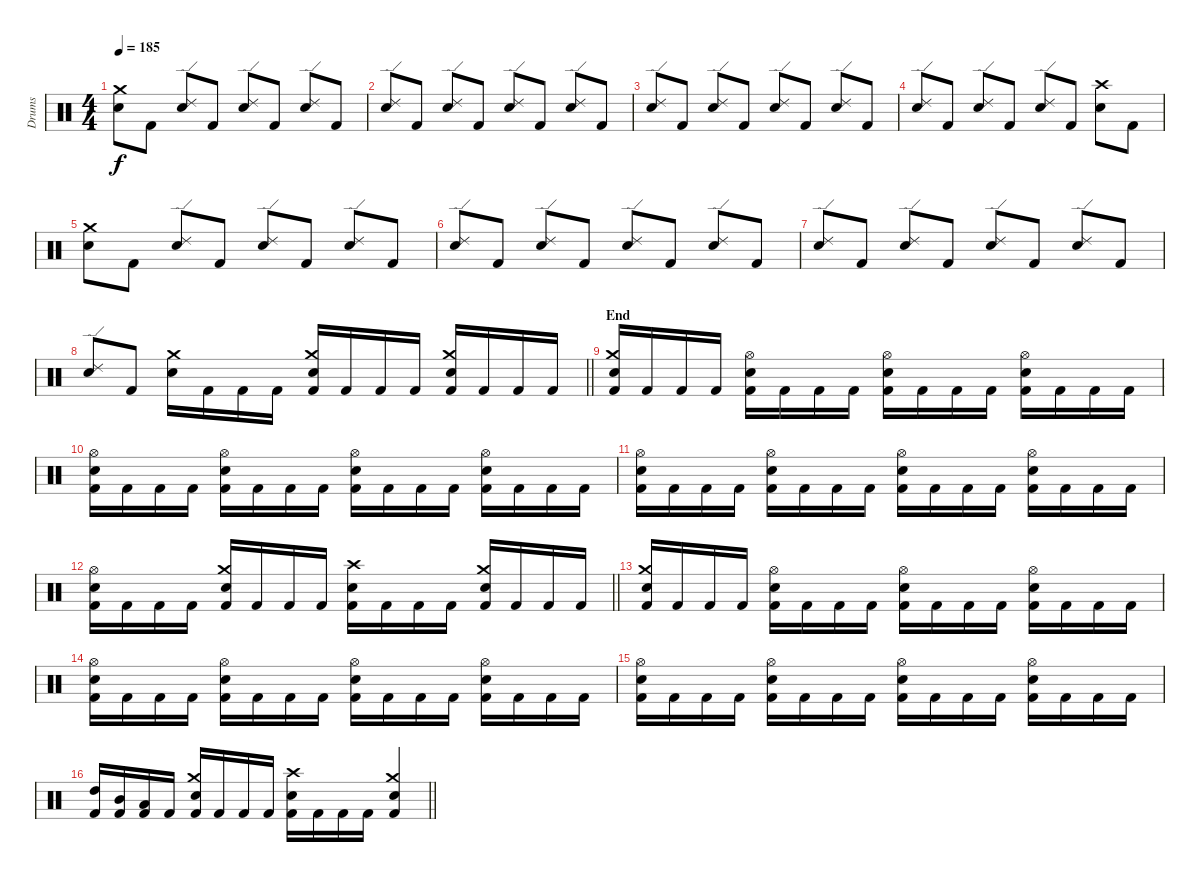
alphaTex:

\track ("Drums" "Drums") {instrument percussion}
\staff {score}
\articulation defaults
\ts (4 4)
\section ("" "")
\tempo 185
\clef neutral
\ks c
("Snare (hit) 2" "Crash medium (hit)").8{dy f} "Kick (hit) 2".8 ("Snare (hit) 2" "Ride (edge) 2").8 "Kick (hit) 2".8 ("Snare (hit) 2" "Ride (edge) 2").8 "Kick (hit) 2".8 ("Snare (hit) 2" "Ride (edge) 2").8 "Kick (hit) 2".8 |
("Snare (hit) 2" "Ride (edge) 2").8 "Kick (hit) 2".8 ("Snare (hit) 2" "Ride (edge) 2").8 "Kick (hit) 2".8 ("Snare (hit) 2" "Ride (edge) 2").8 "Kick (hit) 2".8 ("Snare (hit) 2" "Ride (edge) 2").8 "Kick (hit) 2".8 |
("Snare (hit) 2" "Ride (edge) 2").8 "Kick (hit) 2".8 ("Snare (hit) 2" "Ride (edge) 2").8 "Kick (hit) 2".8 ("Snare (hit) 2" "Ride (edge) 2").8 "Kick (hit) 2".8 ("Snare (hit) 2" "Ride (edge) 2").8 "Kick (hit) 2".8 |
("Snare (hit) 2" "Ride (edge) 2").8 "Kick (hit) 2".8 ("Snare (hit) 2" "Ride (edge) 2").8 "Kick (hit) 2".8 ("Snare (hit) 2" "Ride (edge) 2").8 "Kick (hit) 2".8 ("Snare (hit) 2" "Crash high (hit)").8 "Kick (hit) 2".8 |
("Snare (hit) 2" "Crash medium (hit)").8 "Kick (hit) 2".8 ("Snare (hit) 2" "Ride (edge) 2").8 "Kick (hit) 2".8 ("Snare (hit) 2" "Ride (edge) 2").8 "Kick (hit) 2".8 ("Snare (hit) 2" "Ride (edge) 2").8 "Kick (hit) 2".8 |
("Snare (hit) 2" "Ride (edge) 2").8 "Kick (hit) 2".8 ("Snare (hit) 2" "Ride (edge) 2").8 "Kick (hit) 2".8 ("Snare (hit) 2" "Ride (edge) 2").8 "Kick (hit) 2".8 ("Snare (hit) 2" "Ride (edge) 2").8 "Kick (hit) 2".8 |
("Snare (hit) 2" "Ride (edge) 2").8 "Kick (hit) 2".8 ("Snare (hit) 2" "Ride (edge) 2").8 "Kick (hit) 2".8 ("Snare (hit) 2" "Ride (edge) 2").8 "Kick (hit) 2".8 ("Snare (hit) 2" "Ride (edge) 2").8 "Kick (hit) 2".8 |
\barLineRight lightlight
("Snare (hit) 2" "Ride (edge) 2").8 "Kick (hit) 2".8 ("Snare (hit) 2" "Crash medium (hit)").16 "Kick (hit) 2".16 "Kick (hit) 2".16 "Kick (hit) 2".16 ("Kick (hit) 2" "Snare (hit) 2" "Crash medium (hit)").16 "Kick (hit) 2".16 "Kick (hit) 2".16 "Kick (hit) 2".16 ("Kick (hit) 2" "Snare (hit) 2" "Crash medium (hit)").16 "Kick (hit) 2".16 "Kick (hit) 2".16 "Kick (hit) 2".16 |
\section ("" "End")
("Kick (hit) 2" "Snare (hit) 2" "Crash medium (hit)").16 "Kick (hit) 2".16 "Kick (hit) 2".16 "Kick (hit) 2".16 ("Kick (hit) 2" "Snare (hit) 2" "Hi-Hat (open)").16 "Kick (hit) 2".16 "Kick (hit) 2".16 "Kick (hit) 2".16 ("Kick (hit) 2" "Snare (hit) 2" "Hi-Hat (open)").16 "Kick (hit) 2".16 "Kick (hit) 2".16 "Kick (hit) 2".16 ("Kick (hit) 2" "Snare (hit) 2" "Hi-Hat (open)").16 "Kick (hit) 2".16 "Kick (hit) 2".16 "Kick (hit) 2".16 |
("Kick (hit) 2" "Snare (hit) 2" "Hi-Hat (open)").16 "Kick (hit) 2".16 "Kick (hit) 2".16 "Kick (hit) 2".16 ("Kick (hit) 2" "Snare (hit) 2" "Hi-Hat (open)").16 "Kick (hit) 2".16 "Kick (hit) 2".16 "Kick (hit) 2".16 ("Kick (hit) 2" "Snare (hit) 2" "Hi-Hat (open)").16 "Kick (hit) 2".16 "Kick (hit) 2".16 "Kick (hit) 2".16 ("Kick (hit) 2" "Snare (hit) 2" "Hi-Hat (open)").16 "Kick (hit) 2".16 "Kick (hit) 2".16 "Kick (hit) 2".16 |
("Kick (hit) 2" "Snare (hit) 2" "Hi-Hat (open)").16 "Kick (hit) 2".16 "Kick (hit) 2".16 "Kick (hit) 2".16 ("Kick (hit) 2" "Snare (hit) 2" "Hi-Hat (open)").16 "Kick (hit) 2".16 "Kick (hit) 2".16 "Kick (hit) 2".16 ("Kick (hit) 2" "Snare (hit) 2" "Hi-Hat (open)").16 "Kick (hit) 2".16 "Kick (hit) 2".16 "Kick (hit) 2".16 ("Kick (hit) 2" "Snare (hit) 2" "Hi-Hat (open)").16 "Kick (hit) 2".16 "Kick (hit) 2".16 "Kick (hit) 2".16 |
\barLineRight lightlight
("Kick (hit) 2" "Snare (hit) 2" "Hi-Hat (open)").16 "Kick (hit) 2".16 "Kick (hit) 2".16 "Kick (hit) 2".16 ("Kick (hit) 2" "Snare (hit) 2" "Crash medium (hit)").16 "Kick (hit) 2".16 "Kick (hit) 2".16 "Kick (hit) 2".16 ("Kick (hit) 2" "Snare (hit) 2" "Crash high (hit)").16 "Kick (hit) 2".16 "Kick (hit) 2".16 "Kick (hit) 2".16 ("Kick (hit) 2" "Snare (hit) 2" "Crash medium (hit)").16 "Kick (hit) 2".16 "Kick (hit) 2".16 "Kick (hit) 2".16 |
\section ("" "")
("Kick (hit) 2" "Snare (hit) 2" "Crash medium (hit)").16 "Kick (hit) 2".16 "Kick (hit) 2".16 "Kick (hit) 2".16 ("Kick (hit) 2" "Snare (hit) 2" "Hi-Hat (open)").16 "Kick (hit) 2".16 "Kick (hit) 2".16 "Kick (hit) 2".16 ("Kick (hit) 2" "Snare (hit) 2" "Hi-Hat (open)").16 "Kick (hit) 2".16 "Kick (hit) 2".16 "Kick (hit) 2".16 ("Kick (hit) 2" "Snare (hit) 2" "Hi-Hat (open)").16 "Kick (hit) 2".16 "Kick (hit) 2".16 "Kick (hit) 2".16 |
("Kick (hit) 2" "Snare (hit) 2" "Hi-Hat (open)").16 "Kick (hit) 2".16 "Kick (hit) 2".16 "Kick (hit) 2".16 ("Kick (hit) 2" "Snare (hit) 2" "Hi-Hat (open)").16 "Kick (hit) 2".16 "Kick (hit) 2".16 "Kick (hit) 2".16 ("Kick (hit) 2" "Snare (hit) 2" "Hi-Hat (open)").16 "Kick (hit) 2".16 "Kick (hit) 2".16 "Kick (hit) 2".16 ("Kick (hit) 2" "Snare (hit) 2" "Hi-Hat (open)").16 "Kick (hit) 2".16 "Kick (hit) 2".16 "Kick (hit) 2".16 |
("Kick (hit) 2" "Snare (hit) 2" "Hi-Hat (open)").16 "Kick (hit) 2".16 "Kick (hit) 2".16 "Kick (hit) 2".16 ("Kick (hit) 2" "Snare (hit) 2" "Hi-Hat (open)").16 "Kick (hit) 2".16 "Kick (hit) 2".16 "Kick (hit) 2".16 ("Kick (hit) 2" "Snare (hit) 2" "Hi-Hat (open)").16 "Kick (hit) 2".16 "Kick (hit) 2".16 "Kick (hit) 2".16 ("Kick (hit) 2" "Snare (hit) 2" "Hi-Hat (open)").16 "Kick (hit) 2".16 "Kick (hit) 2".16 "Kick (hit) 2".16 |
\barLineRight lightlight
("Kick (hit) 2" "High Tom (hit)").16 ("Kick (hit) 2" "Mid Tom (hit)").16 ("Kick (hit) 2" "Low Tom (hit)").16 "Kick (hit) 2".16 ("Kick (hit) 2" "Snare (hit) 2" "Crash medium (hit)").16 "Kick (hit) 2".16 "Kick (hit) 2".16 "Kick (hit) 2".16 ("Kick (hit) 2" "Snare (hit) 2" "Crash high (hit)").16 "Kick (hit) 2".16 "Kick (hit) 2".16 "Kick (hit) 2".16 ("Kick (hit) 2" "Snare (hit) 2" "Crash medium (hit)").4
